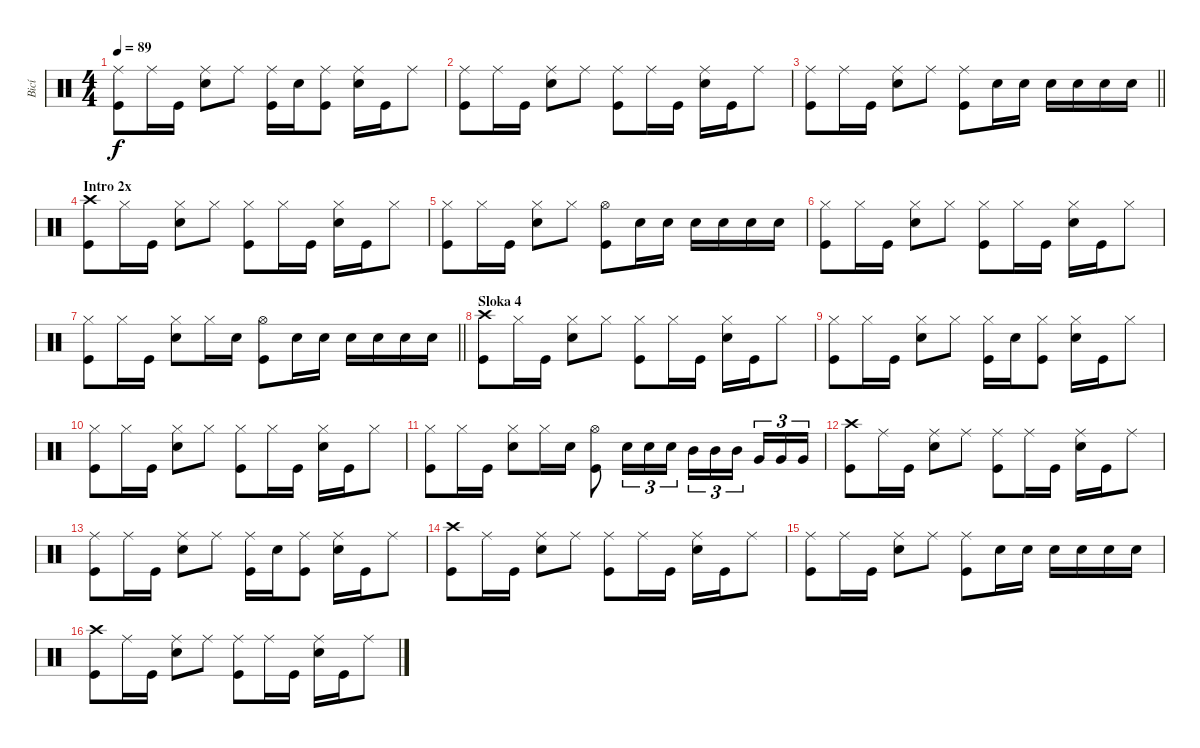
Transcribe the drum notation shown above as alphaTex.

\track ("Bicí" "Bicí") {instrument percussion}
\staff {score}
\articulation defaults
\ts (4 4)
\tempo 89
\clef neutral
\ks c
("Kick (hit)" "Ride (middle)").8{dy f} "Ride (middle)".16{beam merge} "Kick (hit)".16 ("Snare (hit) 2" "Ride (middle)").8 "Ride (middle)".8 ("Kick (hit)" "Ride (middle)").16 "Snare (hit) 2".16 ("Ride (middle)" "Kick (hit)").8 ("Ride (middle)" "Snare (hit) 2").16 "Kick (hit)".16 "Ride (middle)".8 |
("Kick (hit)" "Ride (middle)").8 "Ride (middle)".16{beam merge} "Kick (hit)".16 ("Snare (hit) 2" "Ride (middle)").8{beam Down} "Ride (middle)".8{beam Down} ("Kick (hit)" "Ride (middle)").8 "Ride (middle)".16{beam merge} "Kick (hit)".16 ("Ride (middle)" "Snare (hit) 2").16{beam Down} "Kick (hit)".16{beam Down} "Ride (middle)".8{beam Down} |
\barLineRight lightlight
("Kick (hit)" "Ride (middle)").8 "Ride (middle)".16{beam merge} "Kick (hit)".16 ("Snare (hit) 2" "Ride (middle)").8 "Ride (middle)".8 ("Kick (hit)" "Ride (middle)").8{beam Down} "Snare (hit) 2".16{beam Down} "Snare (hit) 2".16{beam Down} "Snare (hit) 2".16{beam Down} "Snare (hit) 2".16{beam Down} "Snare (hit) 2".16{beam Down} "Snare (hit) 2".16{beam Down} |
\section ("" "Intro 2x")
("Kick (hit)" "Crash high (hit)").8 "Hi-Hat (closed)".16{beam merge} "Kick (hit)".16{beam split} ("Hi-Hat (closed)" "Snare (hit) 2").8 "Hi-Hat (closed)".8 ("Kick (hit)" "Hi-Hat (closed)").8 "Hi-Hat (closed)".16{beam merge} "Kick (hit)".16 ("Hi-Hat (closed)" "Snare (hit) 2").16 "Kick (hit)".16 "Hi-Hat (closed)".8 |
("Kick (hit)" "Hi-Hat (closed)").8 "Hi-Hat (closed)".16{beam merge} "Kick (hit)".16 ("Snare (hit) 2" "Hi-Hat (closed)").8{beam Down} "Hi-Hat (closed)".8{beam Down} ("Kick (hit)" "Hi-Hat (open)").8 "Snare (hit) 2".16 "Snare (hit) 2".16 "Snare (hit) 2".16{beam Down} "Snare (hit) 2".16{beam Down} "Snare (hit) 2".16{beam Down} "Snare (hit) 2".16{beam Down} |
("Kick (hit)" "Hi-Hat (closed)").8 "Hi-Hat (closed)".16{beam merge} "Kick (hit)".16 ("Hi-Hat (closed)" "Snare (hit) 2").8{beam Down} "Hi-Hat (closed)".8{beam Down} ("Kick (hit)" "Hi-Hat (closed)").8 "Hi-Hat (closed)".16{beam merge} "Kick (hit)".16 ("Hi-Hat (closed)" "Snare (hit) 2").16{beam Down} "Kick (hit)".16{beam Down} "Hi-Hat (closed)".8{beam Down} |
\barLineRight lightlight
("Kick (hit)" "Hi-Hat (closed)").8 "Hi-Hat (closed)".16{beam merge} "Kick (hit)".16 ("Snare (hit) 2" "Hi-Hat (closed)").8 "Hi-Hat (closed)".16 "Snare (hit) 2".16 ("Kick (hit)" "Hi-Hat (open)").8 "Snare (hit) 2".16 "Snare (hit) 2".16 "Snare (hit) 2".16{beam Down} "Snare (hit) 2".16{beam Down} "Snare (hit) 2".16{beam Down} "Snare (hit) 2".16{beam Down} |
\section ("" "Sloka 4")
("Kick (hit)" "Crash high (hit)").8 "Hi-Hat (closed)".16{beam merge} "Kick (hit)".16 ("Hi-Hat (closed)" "Snare (hit) 2").8{beam Down} "Hi-Hat (closed)".8{beam Down} ("Kick (hit)" "Hi-Hat (closed)").8 "Hi-Hat (closed)".16{beam merge} "Kick (hit)".16 ("Hi-Hat (closed)" "Snare (hit) 2").16{beam Down} "Kick (hit)".16{beam Down} "Hi-Hat (closed)".8{beam Down} |
("Kick (hit)" "Hi-Hat (closed)").8 "Hi-Hat (closed)".16{beam merge} "Kick (hit)".16 ("Snare (hit) 2" "Hi-Hat (closed)").8{beam Down} "Hi-Hat (closed)".8{beam Down} ("Kick (hit)" "Hi-Hat (closed)").16{beam Down} "Snare (hit) 2".16{beam Down} ("Hi-Hat (closed)" "Kick (hit)").8{beam Down} ("Hi-Hat (closed)" "Snare (hit) 2").16{beam Down} "Kick (hit)".16{beam Down} "Hi-Hat (closed)".8{beam Down} |
("Kick (hit)" "Hi-Hat (closed)").8 "Hi-Hat (closed)".16{beam merge} "Kick (hit)".16 ("Hi-Hat (closed)" "Snare (hit) 2").8{beam Down} "Hi-Hat (closed)".8{beam Down} ("Kick (hit)" "Hi-Hat (closed)").8 "Hi-Hat (closed)".16{beam merge} "Kick (hit)".16 ("Hi-Hat (closed)" "Snare (hit) 2").16{beam Down} "Kick (hit)".16{beam Down} "Hi-Hat (closed)".8{beam Down} |
("Kick (hit)" "Hi-Hat (closed)").8 "Hi-Hat (closed)".16{beam merge} "Kick (hit)".16 ("Snare (hit) 2" "Hi-Hat (closed)").8 "Hi-Hat (closed)".16 "Snare (hit) 2".16 ("Kick (hit)" "Hi-Hat (open)").8 "Snare (hit) 2".16{tu (3 2)} "Snare (hit) 2".16{tu (3 2)} "Snare (hit) 2".16{tu (3 2)} "Mid Tom (hit)".16{tu (3 2)} "Mid Tom (hit)".16{tu (3 2)} "Mid Tom (hit)".16{tu (3 2) beam splitsecondary} "Very Low Tom (hit)".16{tu (3 2)} "Very Low Tom (hit)".16{tu (3 2)} "Very Low Tom (hit)".16{tu (3 2)} |
("Kick (hit)" "Crash high (hit)").8 "Ride (middle)".16{beam merge} "Kick (hit)".16 ("Snare (hit) 2" "Ride (middle)").8{beam Down} "Ride (middle)".8{beam Down} ("Kick (hit)" "Ride (middle)").8 "Ride (middle)".16{beam merge} "Kick (hit)".16 ("Ride (middle)" "Snare (hit) 2").16{beam Down} "Kick (hit)".16{beam Down} "Ride (middle)".8{beam Down} |
("Kick (hit)" "Ride (middle)").8 "Ride (middle)".16{beam merge} "Kick (hit)".16 ("Snare (hit) 2" "Ride (middle)").8 "Ride (middle)".8 ("Kick (hit)" "Ride (middle)").16 "Snare (hit) 2".16 ("Ride (middle)" "Kick (hit)").8 ("Ride (middle)" "Snare (hit) 2").16 "Kick (hit)".16 "Ride (middle)".8 |
("Kick (hit)" "Crash high (hit)").8 "Ride (middle)".16{beam merge} "Kick (hit)".16 ("Snare (hit) 2" "Ride (middle)").8{beam Down} "Ride (middle)".8{beam Down} ("Kick (hit)" "Ride (middle)").8 "Ride (middle)".16{beam merge} "Kick (hit)".16 ("Ride (middle)" "Snare (hit) 2").16{beam Down} "Kick (hit)".16{beam Down} "Ride (middle)".8{beam Down} |
("Kick (hit)" "Ride (middle)").8 "Ride (middle)".16{beam merge} "Kick (hit)".16 ("Snare (hit) 2" "Ride (middle)").8 "Ride (middle)".8 ("Kick (hit)" "Ride (middle)").8{beam Down} "Snare (hit) 2".16{beam Down} "Snare (hit) 2".16{beam Down} "Snare (hit) 2".16{beam Down} "Snare (hit) 2".16{beam Down} "Snare (hit) 2".16{beam Down} "Snare (hit) 2".16{beam Down} |
("Kick (hit)" "Crash high (hit)").8 "Ride (middle)".16{beam merge} "Kick (hit)".16 ("Snare (hit) 2" "Ride (middle)").8{beam Down} "Ride (middle)".8{beam Down} ("Kick (hit)" "Ride (middle)").8 "Ride (middle)".16{beam merge} "Kick (hit)".16 ("Ride (middle)" "Snare (hit) 2").16{beam Down} "Kick (hit)".16{beam Down} "Ride (middle)".8{beam Down}
